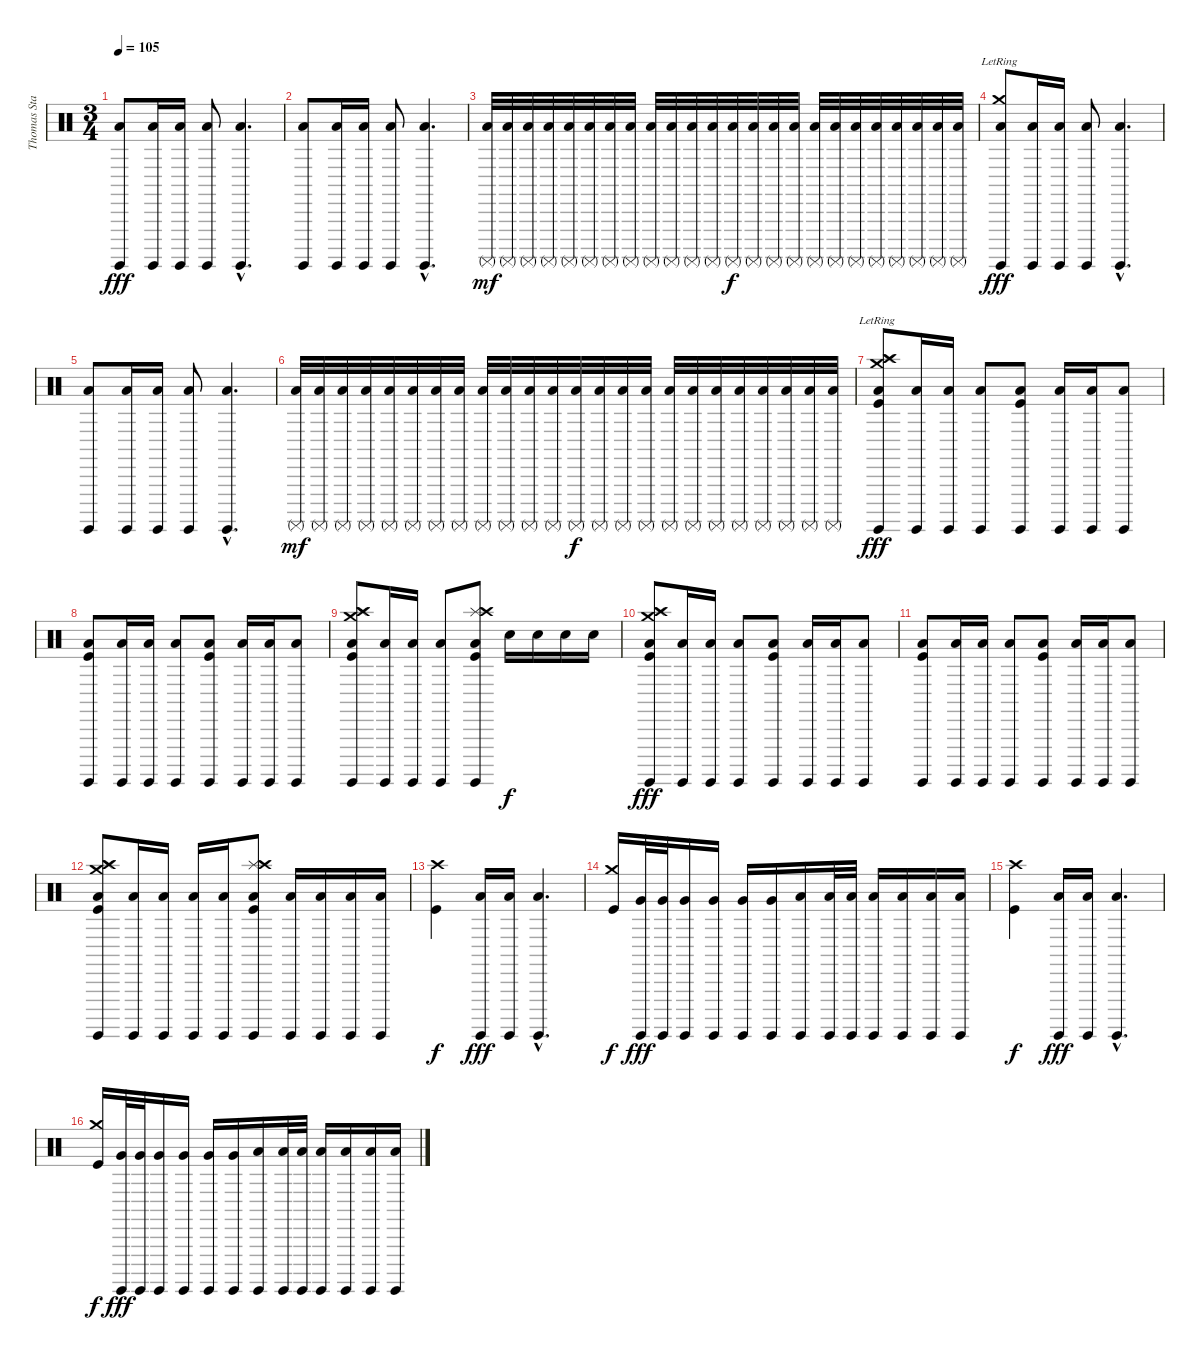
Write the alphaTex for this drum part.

\track ("Thomas Stauch" "Thomas Sta") {instrument percussion}
\staff {score}
\articulation defaults
\ts (3 4)
\tempo 105
\clef neutral
\ks c
("Surdo (hit)" "Low Floor Tom (hit)").8{dy fff} ("Surdo (hit)" "Low Floor Tom (hit)").16 ("Surdo (hit)" "Low Floor Tom (hit)").16 ("Surdo (hit)" "Low Floor Tom (hit)").8 ("Surdo (hit)"{hac} "Low Floor Tom (hit)"{hac}).4{d} |
("Surdo (hit)" "Low Floor Tom (hit)").8 ("Surdo (hit)" "Low Floor Tom (hit)").16 ("Surdo (hit)" "Low Floor Tom (hit)").16 ("Surdo (hit)" "Low Floor Tom (hit)").8 ("Surdo (hit)"{hac} "Low Floor Tom (hit)"{hac}).4{d} |
("Surdo (mute)" "Low Floor Tom (hit)").32{dy mf} ("Surdo (mute)" "Low Floor Tom (hit)").32 ("Surdo (mute)" "Low Floor Tom (hit)").32 ("Surdo (mute)" "Low Floor Tom (hit)").32 ("Surdo (mute)" "Low Floor Tom (hit)").32 ("Surdo (mute)" "Low Floor Tom (hit)").32 ("Surdo (mute)" "Low Floor Tom (hit)").32 ("Surdo (mute)" "Low Floor Tom (hit)").32 ("Surdo (mute)" "Low Floor Tom (hit)").32 ("Surdo (mute)" "Low Floor Tom (hit)").32 ("Surdo (mute)" "Low Floor Tom (hit)").32 ("Surdo (mute)" "Low Floor Tom (hit)").32 ("Surdo (mute)" "Low Floor Tom (hit)").32{dy f} ("Surdo (mute)" "Low Floor Tom (hit)").32 ("Surdo (mute)" "Low Floor Tom (hit)").32 ("Surdo (mute)" "Low Floor Tom (hit)").32 ("Surdo (mute)" "Low Floor Tom (hit)").32 ("Surdo (mute)" "Low Floor Tom (hit)").32 ("Surdo (mute)" "Low Floor Tom (hit)").32 ("Surdo (mute)" "Low Floor Tom (hit)").32 ("Surdo (mute)" "Low Floor Tom (hit)").32 ("Surdo (mute)" "Low Floor Tom (hit)").32 ("Surdo (mute)" "Low Floor Tom (hit)").32 ("Surdo (mute)" "Low Floor Tom (hit)").32 |
("Crash medium (hit)"{lr} "Surdo (hit)" "Low Floor Tom (hit)").8{dy fff} ("Surdo (hit)" "Low Floor Tom (hit)").16 ("Surdo (hit)" "Low Floor Tom (hit)").16 ("Surdo (hit)" "Low Floor Tom (hit)").8 ("Surdo (hit)"{hac} "Low Floor Tom (hit)"{hac}).4{d} |
("Surdo (hit)" "Low Floor Tom (hit)").8 ("Surdo (hit)" "Low Floor Tom (hit)").16 ("Surdo (hit)" "Low Floor Tom (hit)").16 ("Surdo (hit)" "Low Floor Tom (hit)").8 ("Surdo (hit)"{hac} "Low Floor Tom (hit)"{hac}).4{d} |
("Surdo (mute)" "Low Floor Tom (hit)").32{dy mf} ("Surdo (mute)" "Low Floor Tom (hit)").32 ("Surdo (mute)" "Low Floor Tom (hit)").32 ("Surdo (mute)" "Low Floor Tom (hit)").32 ("Surdo (mute)" "Low Floor Tom (hit)").32 ("Surdo (mute)" "Low Floor Tom (hit)").32 ("Surdo (mute)" "Low Floor Tom (hit)").32 ("Surdo (mute)" "Low Floor Tom (hit)").32 ("Surdo (mute)" "Low Floor Tom (hit)").32 ("Surdo (mute)" "Low Floor Tom (hit)").32 ("Surdo (mute)" "Low Floor Tom (hit)").32 ("Surdo (mute)" "Low Floor Tom (hit)").32 ("Surdo (mute)" "Low Floor Tom (hit)").32{dy f} ("Surdo (mute)" "Low Floor Tom (hit)").32 ("Surdo (mute)" "Low Floor Tom (hit)").32 ("Surdo (mute)" "Low Floor Tom (hit)").32 ("Surdo (mute)" "Low Floor Tom (hit)").32 ("Surdo (mute)" "Low Floor Tom (hit)").32 ("Surdo (mute)" "Low Floor Tom (hit)").32 ("Surdo (mute)" "Low Floor Tom (hit)").32 ("Surdo (mute)" "Low Floor Tom (hit)").32 ("Surdo (mute)" "Low Floor Tom (hit)").32 ("Surdo (mute)" "Low Floor Tom (hit)").32 ("Surdo (mute)" "Low Floor Tom (hit)").32 |
("Crash medium (hit)"{lr} "Splash (hit)"{lr} "Crash high (hit)"{lr} "Surdo (hit)" "Low Floor Tom (hit)" "Kick (hit)").8{dy fff} ("Surdo (hit)" "Low Floor Tom (hit)").16 ("Surdo (hit)" "Low Floor Tom (hit)").16 ("Surdo (hit)" "Low Floor Tom (hit)").8 ("Surdo (hit)" "Low Floor Tom (hit)" "Kick (hit)").8 ("Surdo (hit)" "Low Floor Tom (hit)").16 ("Surdo (hit)" "Low Floor Tom (hit)").16 ("Surdo (hit)" "Low Floor Tom (hit)").8 |
("Surdo (hit)" "Low Floor Tom (hit)" "Kick (hit)").8 ("Surdo (hit)" "Low Floor Tom (hit)").16 ("Surdo (hit)" "Low Floor Tom (hit)").16 ("Surdo (hit)" "Low Floor Tom (hit)").8 ("Surdo (hit)" "Low Floor Tom (hit)" "Kick (hit)").8 ("Surdo (hit)" "Low Floor Tom (hit)").16 ("Surdo (hit)" "Low Floor Tom (hit)").16 ("Surdo (hit)" "Low Floor Tom (hit)").8 |
("Crash medium (hit)" "Splash (hit)" "Crash high (hit)" "Surdo (hit)" "Low Floor Tom (hit)" "Kick (hit)").8 ("Surdo (hit)" "Low Floor Tom (hit)").16 ("Surdo (hit)" "Low Floor Tom (hit)").16 ("Surdo (hit)" "Low Floor Tom (hit)").8 ("Splash (hit)" "Crash high (hit)" "Surdo (hit)" "Low Floor Tom (hit)" "Kick (hit)").8 "Electric Snare (hit)".16{dy f} "Electric Snare (hit)".16 "Electric Snare (hit)".16 "Electric Snare (hit)".16 |
("Crash medium (hit)" "Splash (hit)" "Crash high (hit)" "Surdo (hit)" "Low Floor Tom (hit)" "Kick (hit)").8{dy fff} ("Surdo (hit)" "Low Floor Tom (hit)").16 ("Surdo (hit)" "Low Floor Tom (hit)").16 ("Surdo (hit)" "Low Floor Tom (hit)").8 ("Surdo (hit)" "Low Floor Tom (hit)" "Kick (hit)").8 ("Surdo (hit)" "Low Floor Tom (hit)").16 ("Surdo (hit)" "Low Floor Tom (hit)").16 ("Surdo (hit)" "Low Floor Tom (hit)").8 |
("Surdo (hit)" "Low Floor Tom (hit)" "Kick (hit)").8 ("Surdo (hit)" "Low Floor Tom (hit)").16 ("Surdo (hit)" "Low Floor Tom (hit)").16 ("Surdo (hit)" "Low Floor Tom (hit)").8 ("Surdo (hit)" "Low Floor Tom (hit)" "Kick (hit)").8 ("Surdo (hit)" "Low Floor Tom (hit)").16 ("Surdo (hit)" "Low Floor Tom (hit)").16 ("Surdo (hit)" "Low Floor Tom (hit)").8 |
("Crash medium (hit)" "Splash (hit)" "Crash high (hit)" "Surdo (hit)" "Low Floor Tom (hit)" "Kick (hit)").8 ("Surdo (hit)" "Low Floor Tom (hit)").16 ("Surdo (hit)" "Low Floor Tom (hit)").16 ("Surdo (hit)" "Low Floor Tom (hit)").16 ("Surdo (hit)" "Low Floor Tom (hit)").16 ("Splash (hit)" "Crash high (hit)" "Surdo (hit)" "Low Floor Tom (hit)" "Kick (hit)").8 ("Surdo (hit)" "Low Floor Tom (hit)").16 ("Surdo (hit)" "Low Floor Tom (hit)").16 ("Surdo (hit)" "Low Floor Tom (hit)").16 ("Surdo (hit)" "Low Floor Tom (hit)").16 |
("Crash high (hit)" "Kick (hit)").4{dy f} ("Surdo (hit)" "Low Floor Tom (hit)").16{dy fff} ("Surdo (hit)" "Low Floor Tom (hit)").16 ("Surdo (hit)"{hac} "Low Floor Tom (hit)"{hac}).4{d} |
("Crash medium (hit)" "Kick (hit)").16{dy f} ("Surdo (hit)" "Very Low Tom (hit)").32{dy fff} ("Surdo (hit)" "Very Low Tom (hit)").32 ("Surdo (hit)" "Very Low Tom (hit)").16 ("Surdo (hit)" "Very Low Tom (hit)").16 ("Surdo (hit)" "Very Low Tom (hit)").16 ("Surdo (hit)" "Very Low Tom (hit)").16 ("Surdo (hit)" "Low Floor Tom (hit)").16 ("Surdo (hit)" "Low Floor Tom (hit)").32 ("Surdo (hit)" "Low Floor Tom (hit)").32 ("Surdo (hit)" "Low Floor Tom (hit)").16 ("Surdo (hit)" "Low Floor Tom (hit)").16 ("Surdo (hit)" "Low Floor Tom (hit)").16 ("Surdo (hit)" "Low Floor Tom (hit)").16 |
("Crash high (hit)" "Kick (hit)").4{dy f} ("Surdo (hit)" "Low Floor Tom (hit)").16{dy fff} ("Surdo (hit)" "Low Floor Tom (hit)").16 ("Surdo (hit)"{hac} "Low Floor Tom (hit)"{hac}).4{d} |
("Crash medium (hit)" "Kick (hit)").16{dy f} ("Surdo (hit)" "Very Low Tom (hit)").32{dy fff} ("Surdo (hit)" "Very Low Tom (hit)").32 ("Surdo (hit)" "Very Low Tom (hit)").16 ("Surdo (hit)" "Very Low Tom (hit)").16 ("Surdo (hit)" "Very Low Tom (hit)").16 ("Surdo (hit)" "Very Low Tom (hit)").16 ("Surdo (hit)" "Low Floor Tom (hit)").16 ("Surdo (hit)" "Low Floor Tom (hit)").32 ("Surdo (hit)" "Low Floor Tom (hit)").32 ("Surdo (hit)" "Low Floor Tom (hit)").16 ("Surdo (hit)" "Low Floor Tom (hit)").16 ("Surdo (hit)" "Low Floor Tom (hit)").16 ("Surdo (hit)" "Low Floor Tom (hit)").16
